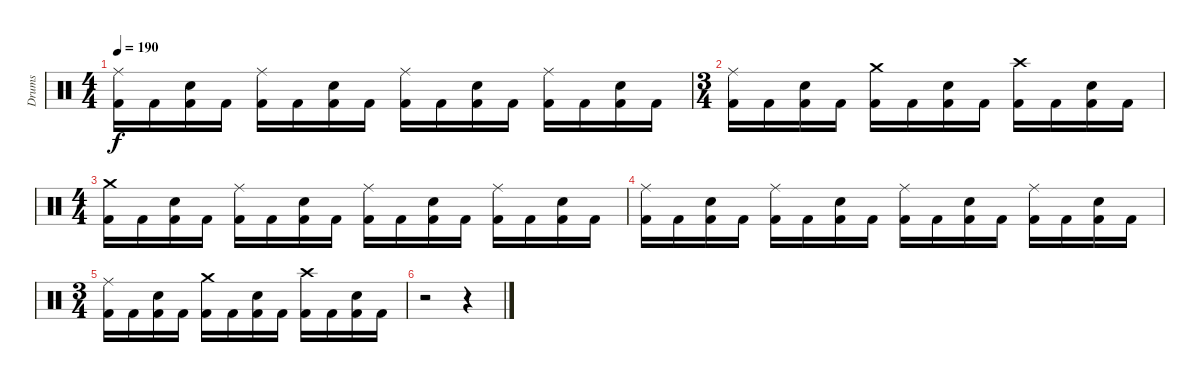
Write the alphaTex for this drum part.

\track ("Drums" "Drums") {instrument percussion}
\staff {score}
\articulation defaults
\ts (4 4)
\tempo 190
\clef neutral
\ks c
("Kick (hit) 2" "Ride (middle)").16{dy f} "Kick (hit) 2".16 ("Kick (hit) 2" "Electric Snare (hit)").16 "Kick (hit) 2".16 ("Kick (hit) 2" "Ride (middle)").16 "Kick (hit) 2".16 ("Kick (hit) 2" "Electric Snare (hit)").16 "Kick (hit) 2".16 ("Kick (hit) 2" "Ride (middle)").16 "Kick (hit) 2".16 ("Kick (hit) 2" "Electric Snare (hit)").16 "Kick (hit) 2".16 ("Kick (hit) 2" "Ride (middle)").16 "Kick (hit) 2".16 ("Kick (hit) 2" "Electric Snare (hit)").16 "Kick (hit) 2".16 |
\ts (3 4)
("Kick (hit) 2" "Ride (middle)").16 "Kick (hit) 2".16 ("Kick (hit) 2" "Electric Snare (hit)").16 "Kick (hit) 2".16 ("Kick (hit) 2" "Crash medium (hit)").16 "Kick (hit) 2".16 ("Kick (hit) 2" "Electric Snare (hit)").16 "Kick (hit) 2".16 ("Kick (hit) 2" "Crash high (hit)").16 "Kick (hit) 2".16 ("Kick (hit) 2" "Electric Snare (hit)").16 "Kick (hit) 2".16 |
\ts (4 4)
("Kick (hit) 2" "Crash medium (hit)").16 "Kick (hit) 2".16 ("Kick (hit) 2" "Electric Snare (hit)").16 "Kick (hit) 2".16 ("Kick (hit) 2" "Ride (middle)").16 "Kick (hit) 2".16 ("Kick (hit) 2" "Electric Snare (hit)").16 "Kick (hit) 2".16 ("Kick (hit) 2" "Ride (middle)").16 "Kick (hit) 2".16 ("Kick (hit) 2" "Electric Snare (hit)").16 "Kick (hit) 2".16 ("Kick (hit) 2" "Ride (middle)").16 "Kick (hit) 2".16 ("Kick (hit) 2" "Electric Snare (hit)").16 "Kick (hit) 2".16 |
("Kick (hit) 2" "Ride (middle)").16 "Kick (hit) 2".16 ("Kick (hit) 2" "Electric Snare (hit)").16 "Kick (hit) 2".16 ("Kick (hit) 2" "Ride (middle)").16 "Kick (hit) 2".16 ("Kick (hit) 2" "Electric Snare (hit)").16 "Kick (hit) 2".16 ("Kick (hit) 2" "Ride (middle)").16 "Kick (hit) 2".16 ("Kick (hit) 2" "Electric Snare (hit)").16 "Kick (hit) 2".16 ("Kick (hit) 2" "Ride (middle)").16 "Kick (hit) 2".16 ("Kick (hit) 2" "Electric Snare (hit)").16 "Kick (hit) 2".16 |
\ts (3 4)
("Kick (hit) 2" "Ride (middle)").16 "Kick (hit) 2".16 ("Kick (hit) 2" "Electric Snare (hit)").16 "Kick (hit) 2".16 ("Kick (hit) 2" "Crash medium (hit)").16 "Kick (hit) 2".16 ("Kick (hit) 2" "Electric Snare (hit)").16 "Kick (hit) 2".16 ("Kick (hit) 2" "Crash high (hit)").16 "Kick (hit) 2".16 ("Kick (hit) 2" "Electric Snare (hit)").16 "Kick (hit) 2".16 |
r.2 r.4
